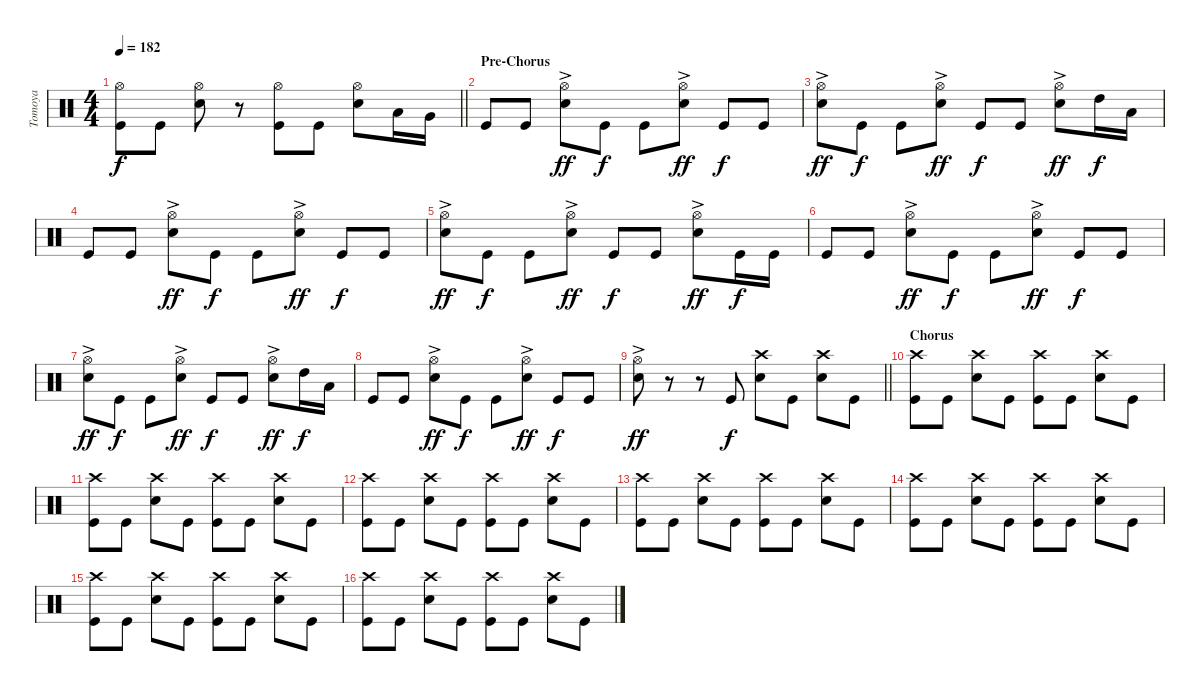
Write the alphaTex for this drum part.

\track ("Tomoya" "Tomoya") {instrument percussion}
\staff {score}
\articulation defaults
\ts (4 4)
\tempo 182
\clef neutral
\barLineRight lightlight
\ks c
("Hi-Hat (open)" "Kick (hit)").8{dy f} "Kick (hit)".8 ("Hi-Hat (open)" "Snare (hit) 2").8 r.8 ("Hi-Hat (open)" "Kick (hit)").8 "Kick (hit)".8 ("Hi-Hat (open)" "Snare (hit) 2").8 "Low Tom (hit)".16 "Very Low Tom (hit)".16 |
\section ("" "Pre-Chorus")
"Kick (hit)".8 "Kick (hit)".8 ("Hi-Hat (open)"{ac} "Snare (hit) 2").8{dy ff} "Kick (hit)".8{dy f} "Kick (hit)".8 ("Hi-Hat (open)"{ac} "Snare (hit) 2").8{dy ff} "Kick (hit)".8{dy f} "Kick (hit)".8 |
("Hi-Hat (open)"{ac} "Snare (hit) 2").8{dy ff} "Kick (hit)".8{dy f} "Kick (hit)".8 ("Hi-Hat (open)"{ac} "Snare (hit) 2").8{dy ff} "Kick (hit)".8{dy f} "Kick (hit)".8 ("Hi-Hat (open)"{ac} "Snare (hit) 2").8{dy ff} "High Tom (hit)".16{dy f} "Low Tom (hit)".16 |
"Kick (hit)".8 "Kick (hit)".8 ("Hi-Hat (open)"{ac} "Snare (hit) 2").8{dy ff} "Kick (hit)".8{dy f} "Kick (hit)".8 ("Hi-Hat (open)"{ac} "Snare (hit) 2").8{dy ff} "Kick (hit)".8{dy f} "Kick (hit)".8 |
("Hi-Hat (open)"{ac} "Snare (hit) 2").8{dy ff} "Kick (hit)".8{dy f} "Kick (hit)".8 ("Hi-Hat (open)"{ac} "Snare (hit) 2").8{dy ff} "Kick (hit)".8{dy f} "Kick (hit)".8 ("Hi-Hat (open)"{ac} "Snare (hit) 2").8{dy ff} "Kick (hit)".16{dy f} "Kick (hit)".16 |
"Kick (hit)".8 "Kick (hit)".8 ("Hi-Hat (open)"{ac} "Snare (hit) 2").8{dy ff} "Kick (hit)".8{dy f} "Kick (hit)".8 ("Hi-Hat (open)"{ac} "Snare (hit) 2").8{dy ff} "Kick (hit)".8{dy f} "Kick (hit)".8 |
("Hi-Hat (open)"{ac} "Snare (hit) 2").8{dy ff} "Kick (hit)".8{dy f} "Kick (hit)".8 ("Hi-Hat (open)"{ac} "Snare (hit) 2").8{dy ff} "Kick (hit)".8{dy f} "Kick (hit)".8 ("Hi-Hat (open)"{ac} "Snare (hit) 2").8{dy ff} "High Tom (hit)".16{dy f} "Low Tom (hit)".16 |
"Kick (hit)".8 "Kick (hit)".8 ("Hi-Hat (open)"{ac} "Snare (hit) 2").8{dy ff} "Kick (hit)".8{dy f} "Kick (hit)".8 ("Hi-Hat (open)"{ac} "Snare (hit) 2").8{dy ff} "Kick (hit)".8{dy f} "Kick (hit)".8 |
\barLineRight lightlight
("Hi-Hat (open)"{ac} "Snare (hit) 2").8{dy ff} r.8 r.8 "Kick (hit)".8{dy f} ("Crash high (hit)" "Snare (hit) 2").8 "Kick (hit)".8 ("Crash high (hit)" "Snare (hit) 2").8 "Kick (hit)".8 |
\section ("" "Chorus")
("Crash high (hit)" "Kick (hit)").8 "Kick (hit)".8 ("Crash high (hit)" "Snare (hit) 2").8 "Kick (hit)".8 ("Crash high (hit)" "Kick (hit)").8 "Kick (hit)".8 ("Crash high (hit)" "Snare (hit) 2").8 "Kick (hit)".8 |
("Crash high (hit)" "Kick (hit)").8 "Kick (hit)".8 ("Crash high (hit)" "Snare (hit) 2").8 "Kick (hit)".8 ("Crash high (hit)" "Kick (hit)").8 "Kick (hit)".8 ("Crash high (hit)" "Snare (hit) 2").8 "Kick (hit)".8 |
("Crash high (hit)" "Kick (hit)").8 "Kick (hit)".8 ("Crash high (hit)" "Snare (hit) 2").8 "Kick (hit)".8 ("Crash high (hit)" "Kick (hit)").8 "Kick (hit)".8 ("Crash high (hit)" "Snare (hit) 2").8 "Kick (hit)".8 |
("Crash high (hit)" "Kick (hit)").8 "Kick (hit)".8 ("Crash high (hit)" "Snare (hit) 2").8 "Kick (hit)".8 ("Crash high (hit)" "Kick (hit)").8 "Kick (hit)".8 ("Crash high (hit)" "Snare (hit) 2").8 "Kick (hit)".8 |
("Crash high (hit)" "Kick (hit)").8 "Kick (hit)".8 ("Crash high (hit)" "Snare (hit) 2").8 "Kick (hit)".8 ("Crash high (hit)" "Kick (hit)").8 "Kick (hit)".8 ("Crash high (hit)" "Snare (hit) 2").8 "Kick (hit)".8 |
("Crash high (hit)" "Kick (hit)").8 "Kick (hit)".8 ("Crash high (hit)" "Snare (hit) 2").8 "Kick (hit)".8 ("Crash high (hit)" "Kick (hit)").8 "Kick (hit)".8 ("Crash high (hit)" "Snare (hit) 2").8 "Kick (hit)".8 |
("Crash high (hit)" "Kick (hit)").8 "Kick (hit)".8 ("Crash high (hit)" "Snare (hit) 2").8 "Kick (hit)".8 ("Crash high (hit)" "Kick (hit)").8 "Kick (hit)".8 ("Crash high (hit)" "Snare (hit) 2").8 "Kick (hit)".8
